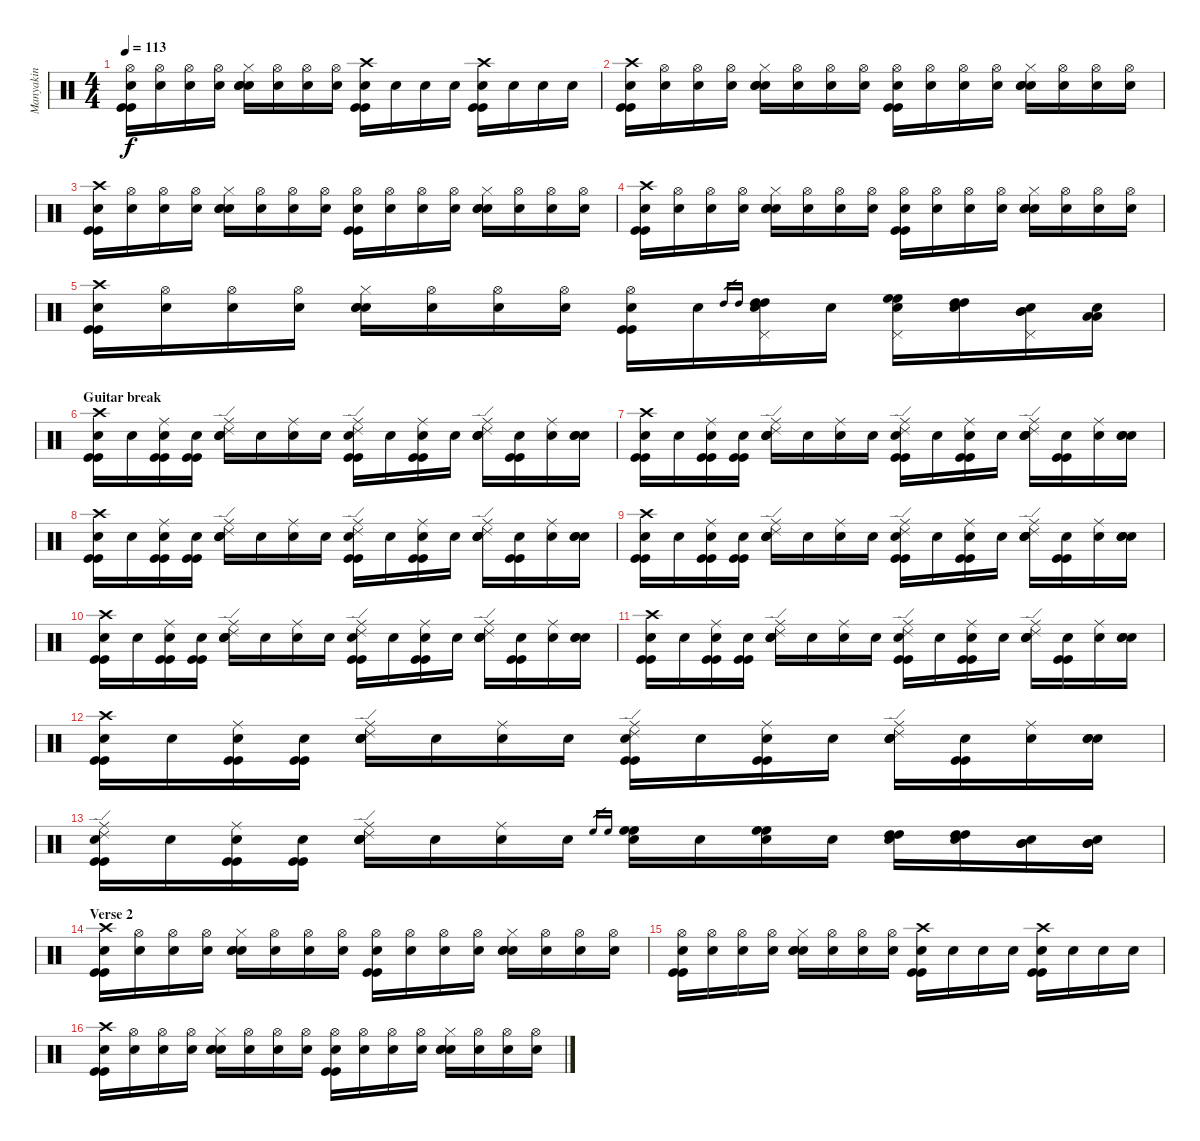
\track ("Manyakin" "Manyakin") {instrument percussion}
\staff {score}
\articulation defaults
\ts (4 4)
\tempo 113
\clef neutral
\ks c
("Hi-Hat (open)" "Kick (hit)" "Kick (hit)" "Snare (hit)"{x}).16{dy f} ("Hi-Hat (open)" "Snare (hit)"{x}).16 ("Hi-Hat (open)" "Snare (hit)"{x}).16 ("Hi-Hat (open)" "Snare (hit)"{x}).16 ("Hi-Hat (closed)" "Electric Snare (hit)" "Electric Snare (hit)" "Snare (hit)"{x}).16 ("Hi-Hat (open)" "Snare (hit)"{x}).16 ("Hi-Hat (open)" "Snare (hit)"{x}).16 ("Hi-Hat (open)" "Snare (hit)"{x}).16 ("Crash high (hit)" "Kick (hit)" "Kick (hit)" "Snare (hit)"{x}).16 "Snare (hit)"{x}.16 "Snare (hit)"{x}.16 "Snare (hit)"{x}.16 ("Crash high (hit)" "Kick (hit)" "Kick (hit)" "Snare (hit)"{x}).16 "Snare (hit)"{x}.16 "Snare (hit)"{x}.16 "Snare (hit)"{x}.16 |
("Crash high (hit)" "Kick (hit)" "Kick (hit)" "Snare (hit)"{x}).16 ("Hi-Hat (open)" "Snare (hit)"{x}).16 ("Hi-Hat (open)" "Snare (hit)"{x}).16 ("Hi-Hat (open)" "Snare (hit)"{x}).16 ("Hi-Hat (closed)" "Electric Snare (hit)" "Electric Snare (hit)" "Snare (hit)"{x}).16 ("Hi-Hat (open)" "Snare (hit)"{x}).16 ("Hi-Hat (open)" "Snare (hit)"{x}).16 ("Hi-Hat (open)" "Snare (hit)"{x}).16 ("Hi-Hat (open)" "Kick (hit)" "Kick (hit)" "Snare (hit)"{x}).16 ("Hi-Hat (open)" "Snare (hit)"{x}).16 ("Hi-Hat (open)" "Snare (hit)"{x}).16 ("Hi-Hat (open)" "Snare (hit)"{x}).16 ("Hi-Hat (closed)" "Electric Snare (hit)" "Electric Snare (hit)" "Snare (hit)"{x}).16 ("Hi-Hat (open)" "Snare (hit)"{x}).16 ("Hi-Hat (open)" "Snare (hit)"{x}).16 ("Hi-Hat (open)" "Snare (hit)"{x}).16 |
("Crash high (hit)" "Kick (hit)" "Kick (hit)" "Snare (hit)"{x}).16 ("Hi-Hat (open)" "Snare (hit)"{x}).16 ("Hi-Hat (open)" "Snare (hit)"{x}).16 ("Hi-Hat (open)" "Snare (hit)"{x}).16 ("Hi-Hat (closed)" "Electric Snare (hit)" "Electric Snare (hit)" "Snare (hit)"{x}).16 ("Hi-Hat (open)" "Snare (hit)"{x}).16 ("Hi-Hat (open)" "Snare (hit)"{x}).16 ("Hi-Hat (open)" "Snare (hit)"{x}).16 ("Hi-Hat (open)" "Kick (hit)" "Kick (hit)" "Snare (hit)"{x}).16 ("Hi-Hat (open)" "Snare (hit)"{x}).16 ("Hi-Hat (open)" "Snare (hit)"{x}).16 ("Hi-Hat (open)" "Snare (hit)"{x}).16 ("Hi-Hat (closed)" "Electric Snare (hit)" "Electric Snare (hit)" "Snare (hit)"{x}).16 ("Hi-Hat (open)" "Snare (hit)"{x}).16 ("Hi-Hat (open)" "Snare (hit)"{x}).16 ("Hi-Hat (open)" "Snare (hit)"{x}).16 |
("Crash high (hit)" "Kick (hit)" "Kick (hit)" "Snare (hit)"{x}).16 ("Hi-Hat (open)" "Snare (hit)"{x}).16 ("Hi-Hat (open)" "Snare (hit)"{x}).16 ("Hi-Hat (open)" "Snare (hit)"{x}).16 ("Hi-Hat (closed)" "Electric Snare (hit)" "Electric Snare (hit)" "Snare (hit)"{x}).16 ("Hi-Hat (open)" "Snare (hit)"{x}).16 ("Hi-Hat (open)" "Snare (hit)"{x}).16 ("Hi-Hat (open)" "Snare (hit)"{x}).16 ("Hi-Hat (open)" "Kick (hit)" "Kick (hit)" "Snare (hit)"{x}).16 ("Hi-Hat (open)" "Snare (hit)"{x}).16 ("Hi-Hat (open)" "Snare (hit)"{x}).16 ("Hi-Hat (open)" "Snare (hit)"{x}).16 ("Hi-Hat (closed)" "Electric Snare (hit)" "Electric Snare (hit)" "Snare (hit)"{x}).16 ("Hi-Hat (open)" "Snare (hit)"{x}).16 ("Hi-Hat (open)" "Snare (hit)"{x}).16 ("Hi-Hat (open)" "Snare (hit)"{x}).16 |
("Crash high (hit)" "Kick (hit)" "Kick (hit)" "Snare (hit)"{x}).16 ("Hi-Hat (open)" "Snare (hit)"{x}).16 ("Hi-Hat (open)" "Snare (hit)"{x}).16 ("Hi-Hat (open)" "Snare (hit)"{x}).16 ("Hi-Hat (closed)" "Electric Snare (hit)" "Electric Snare (hit)" "Snare (hit)"{x}).16 ("Hi-Hat (open)" "Snare (hit)"{x}).16 ("Hi-Hat (open)" "Snare (hit)"{x}).16 ("Hi-Hat (open)" "Snare (hit)"{x}).16 ("Hi-Hat (open)" "Kick (hit)" "Kick (hit)" "Snare (hit)"{x}).16 "Snare (hit)"{x}.16 "High Tom (hit)".16{gr} "High Tom (hit)".16{gr} ("Pedal Hi-Hat (hit)" "High Tom (hit)" "High Tom (hit)" "Snare (hit)"{x}).16 "Snare (hit)"{x}.16 ("Pedal Hi-Hat (hit)" "High Floor Tom (hit)" "High Floor Tom (hit)" "Snare (hit)"{x}).16 ("High Tom (hit)" "High Tom (hit)" "Snare (hit)"{x}).16 ("Pedal Hi-Hat (hit)" "Mid Tom (hit)" "Mid Tom (hit)" "Snare (hit)"{x}).16 ("Low Tom (hit)" "Low Tom (hit)" "Snare (hit)"{x}).16 |
\section ("" "Guitar break")
("Crash high (hit)" "Kick (hit)" "Kick (hit)" "Snare (hit)"{x}).16 "Snare (hit)"{x}.16 ("Ride (middle)" "Kick (hit)" "Kick (hit)" "Snare (hit)"{x}).16 ("Kick (hit)" "Kick (hit)" "Snare (hit)"{x}).16 ("Ride (middle)" "Ride (edge) 2" "Electric Snare (hit)" "Electric Snare (hit)" "Snare (hit)"{x}).16 "Snare (hit)"{x}.16 ("Ride (middle)" "Snare (hit)"{x}).16 "Snare (hit)"{x}.16 ("Ride (middle)" "Ride (edge) 2" "Kick (hit)" "Kick (hit)" "Snare (hit)"{x}).16 "Snare (hit)"{x}.16 ("Ride (middle)" "Kick (hit)" "Kick (hit)" "Snare (hit)"{x}).16 "Snare (hit)"{x}.16 ("Ride (middle)" "Ride (edge) 2" "Electric Snare (hit)" "Electric Snare (hit)" "Snare (hit)"{x}).16 ("Kick (hit)" "Kick (hit)" "Snare (hit)"{x}).16 ("Ride (middle)" "Snare (hit)"{x}).16 ("Electric Snare (hit)" "Electric Snare (hit)" "Snare (hit)"{x}).16 |
("Crash high (hit)" "Kick (hit)" "Kick (hit)" "Snare (hit)"{x}).16 "Snare (hit)"{x}.16 ("Ride (middle)" "Kick (hit)" "Kick (hit)" "Snare (hit)"{x}).16 ("Kick (hit)" "Kick (hit)" "Snare (hit)"{x}).16 ("Ride (middle)" "Ride (edge) 2" "Electric Snare (hit)" "Electric Snare (hit)" "Snare (hit)"{x}).16 "Snare (hit)"{x}.16 ("Ride (middle)" "Snare (hit)"{x}).16 "Snare (hit)"{x}.16 ("Ride (middle)" "Ride (edge) 2" "Kick (hit)" "Kick (hit)" "Snare (hit)"{x}).16 "Snare (hit)"{x}.16 ("Ride (middle)" "Kick (hit)" "Kick (hit)" "Snare (hit)"{x}).16 "Snare (hit)"{x}.16 ("Ride (middle)" "Ride (edge) 2" "Electric Snare (hit)" "Electric Snare (hit)" "Snare (hit)"{x}).16 ("Kick (hit)" "Kick (hit)" "Snare (hit)"{x}).16 ("Ride (middle)" "Snare (hit)"{x}).16 ("Electric Snare (hit)" "Electric Snare (hit)" "Snare (hit)"{x}).16 |
("Crash high (hit)" "Kick (hit)" "Kick (hit)" "Snare (hit)"{x}).16 "Snare (hit)"{x}.16 ("Ride (middle)" "Kick (hit)" "Kick (hit)" "Snare (hit)"{x}).16 ("Kick (hit)" "Kick (hit)" "Snare (hit)"{x}).16 ("Ride (middle)" "Ride (edge) 2" "Electric Snare (hit)" "Electric Snare (hit)" "Snare (hit)"{x}).16 "Snare (hit)"{x}.16 ("Ride (middle)" "Snare (hit)"{x}).16 "Snare (hit)"{x}.16 ("Ride (middle)" "Ride (edge) 2" "Kick (hit)" "Kick (hit)" "Snare (hit)"{x}).16 "Snare (hit)"{x}.16 ("Ride (middle)" "Kick (hit)" "Kick (hit)" "Snare (hit)"{x}).16 "Snare (hit)"{x}.16 ("Ride (middle)" "Ride (edge) 2" "Electric Snare (hit)" "Electric Snare (hit)" "Snare (hit)"{x}).16 ("Kick (hit)" "Kick (hit)" "Snare (hit)"{x}).16 ("Ride (middle)" "Snare (hit)"{x}).16 ("Electric Snare (hit)" "Electric Snare (hit)" "Snare (hit)"{x}).16 |
("Crash high (hit)" "Kick (hit)" "Kick (hit)" "Snare (hit)"{x}).16 "Snare (hit)"{x}.16 ("Ride (middle)" "Kick (hit)" "Kick (hit)" "Snare (hit)"{x}).16 ("Kick (hit)" "Kick (hit)" "Snare (hit)"{x}).16 ("Ride (middle)" "Ride (edge) 2" "Electric Snare (hit)" "Electric Snare (hit)" "Snare (hit)"{x}).16 "Snare (hit)"{x}.16 ("Ride (middle)" "Snare (hit)"{x}).16 "Snare (hit)"{x}.16 ("Ride (middle)" "Ride (edge) 2" "Kick (hit)" "Kick (hit)" "Snare (hit)"{x}).16 "Snare (hit)"{x}.16 ("Ride (middle)" "Kick (hit)" "Kick (hit)" "Snare (hit)"{x}).16 "Snare (hit)"{x}.16 ("Ride (middle)" "Ride (edge) 2" "Electric Snare (hit)" "Electric Snare (hit)" "Snare (hit)"{x}).16 ("Kick (hit)" "Kick (hit)" "Snare (hit)"{x}).16 ("Ride (middle)" "Snare (hit)"{x}).16 ("Electric Snare (hit)" "Electric Snare (hit)" "Snare (hit)"{x}).16 |
("Crash high (hit)" "Kick (hit)" "Kick (hit)" "Snare (hit)"{x}).16 "Snare (hit)"{x}.16 ("Ride (middle)" "Kick (hit)" "Kick (hit)" "Snare (hit)"{x}).16 ("Kick (hit)" "Kick (hit)" "Snare (hit)"{x}).16 ("Ride (middle)" "Ride (edge) 2" "Electric Snare (hit)" "Electric Snare (hit)" "Snare (hit)"{x}).16 "Snare (hit)"{x}.16 ("Ride (middle)" "Snare (hit)"{x}).16 "Snare (hit)"{x}.16 ("Ride (middle)" "Ride (edge) 2" "Kick (hit)" "Kick (hit)" "Snare (hit)"{x}).16 "Snare (hit)"{x}.16 ("Ride (middle)" "Kick (hit)" "Kick (hit)" "Snare (hit)"{x}).16 "Snare (hit)"{x}.16 ("Ride (middle)" "Ride (edge) 2" "Electric Snare (hit)" "Electric Snare (hit)" "Snare (hit)"{x}).16 ("Kick (hit)" "Kick (hit)" "Snare (hit)"{x}).16 ("Ride (middle)" "Snare (hit)"{x}).16 ("Electric Snare (hit)" "Electric Snare (hit)" "Snare (hit)"{x}).16 |
("Crash high (hit)" "Kick (hit)" "Kick (hit)" "Snare (hit)"{x}).16 "Snare (hit)"{x}.16 ("Ride (middle)" "Kick (hit)" "Kick (hit)" "Snare (hit)"{x}).16 ("Kick (hit)" "Kick (hit)" "Snare (hit)"{x}).16 ("Ride (middle)" "Ride (edge) 2" "Electric Snare (hit)" "Electric Snare (hit)" "Snare (hit)"{x}).16 "Snare (hit)"{x}.16 ("Ride (middle)" "Snare (hit)"{x}).16 "Snare (hit)"{x}.16 ("Ride (middle)" "Ride (edge) 2" "Kick (hit)" "Kick (hit)" "Snare (hit)"{x}).16 "Snare (hit)"{x}.16 ("Ride (middle)" "Kick (hit)" "Kick (hit)" "Snare (hit)"{x}).16 "Snare (hit)"{x}.16 ("Ride (middle)" "Ride (edge) 2" "Electric Snare (hit)" "Electric Snare (hit)" "Snare (hit)"{x}).16 ("Kick (hit)" "Kick (hit)" "Snare (hit)"{x}).16 ("Ride (middle)" "Snare (hit)"{x}).16 ("Electric Snare (hit)" "Electric Snare (hit)" "Snare (hit)"{x}).16 |
("Crash high (hit)" "Kick (hit)" "Kick (hit)" "Snare (hit)"{x}).16 "Snare (hit)"{x}.16 ("Ride (middle)" "Kick (hit)" "Kick (hit)" "Snare (hit)"{x}).16 ("Kick (hit)" "Kick (hit)" "Snare (hit)"{x}).16 ("Ride (middle)" "Ride (edge) 2" "Electric Snare (hit)" "Electric Snare (hit)" "Snare (hit)"{x}).16 "Snare (hit)"{x}.16 ("Ride (middle)" "Snare (hit)"{x}).16 "Snare (hit)"{x}.16 ("Ride (middle)" "Ride (edge) 2" "Kick (hit)" "Kick (hit)" "Snare (hit)"{x}).16 "Snare (hit)"{x}.16 ("Ride (middle)" "Kick (hit)" "Kick (hit)" "Snare (hit)"{x}).16 "Snare (hit)"{x}.16 ("Ride (middle)" "Ride (edge) 2" "Electric Snare (hit)" "Electric Snare (hit)" "Snare (hit)"{x}).16 ("Kick (hit)" "Kick (hit)" "Snare (hit)"{x}).16 ("Ride (middle)" "Snare (hit)"{x}).16 ("Electric Snare (hit)" "Electric Snare (hit)" "Snare (hit)"{x}).16 |
("Ride (middle)" "Ride (edge) 2" "Kick (hit)" "Kick (hit)" "Snare (hit)"{x}).16 "Snare (hit)"{x}.16 ("Ride (middle)" "Kick (hit)" "Kick (hit)" "Snare (hit)"{x}).16 ("Kick (hit)" "Kick (hit)" "Snare (hit)"{x}).16 ("Ride (middle)" "Ride (edge) 2" "Electric Snare (hit)" "Electric Snare (hit)" "Snare (hit)"{x}).16 "Snare (hit)"{x}.16 ("Ride (middle)" "Snare (hit)"{x}).16 "Snare (hit)"{x}.16 "High Floor Tom (hit)".16{gr} "High Floor Tom (hit)".16{gr} ("High Floor Tom (hit)" "High Floor Tom (hit)" "Snare (hit)"{x}).16 "Snare (hit)"{x}.16 ("High Floor Tom (hit)" "High Floor Tom (hit)" "Snare (hit)"{x}).16 "Snare (hit)"{x}.16 ("High Tom (hit)" "High Tom (hit)" "Snare (hit)"{x}).16 ("High Tom (hit)" "High Tom (hit)" "Snare (hit)"{x}).16 ("Mid Tom (hit)" "Mid Tom (hit)" "Snare (hit)"{x}).16 ("Mid Tom (hit)" "Mid Tom (hit)" "Snare (hit)"{x}).16 |
\section ("" "Verse 2")
("Crash high (hit)" "Kick (hit)" "Kick (hit)" "Snare (hit)"{x}).16 ("Hi-Hat (open)" "Snare (hit)"{x}).16 ("Hi-Hat (open)" "Snare (hit)"{x}).16 ("Hi-Hat (open)" "Snare (hit)"{x}).16 ("Hi-Hat (closed)" "Electric Snare (hit)" "Electric Snare (hit)" "Snare (hit)"{x}).16 ("Hi-Hat (open)" "Snare (hit)"{x}).16 ("Hi-Hat (open)" "Snare (hit)"{x}).16 ("Hi-Hat (open)" "Snare (hit)"{x}).16 ("Hi-Hat (open)" "Kick (hit)" "Kick (hit)" "Snare (hit)"{x}).16 ("Hi-Hat (open)" "Snare (hit)"{x}).16 ("Hi-Hat (open)" "Snare (hit)"{x}).16 ("Hi-Hat (open)" "Snare (hit)"{x}).16 ("Hi-Hat (closed)" "Electric Snare (hit)" "Electric Snare (hit)" "Snare (hit)"{x}).16 ("Hi-Hat (open)" "Snare (hit)"{x}).16 ("Hi-Hat (open)" "Snare (hit)"{x}).16 ("Hi-Hat (open)" "Snare (hit)"{x}).16 |
("Hi-Hat (open)" "Kick (hit)" "Kick (hit)" "Snare (hit)"{x}).16 ("Hi-Hat (open)" "Snare (hit)"{x}).16 ("Hi-Hat (open)" "Snare (hit)"{x}).16 ("Hi-Hat (open)" "Snare (hit)"{x}).16 ("Hi-Hat (closed)" "Electric Snare (hit)" "Electric Snare (hit)" "Snare (hit)"{x}).16 ("Hi-Hat (open)" "Snare (hit)"{x}).16 ("Hi-Hat (open)" "Snare (hit)"{x}).16 ("Hi-Hat (open)" "Snare (hit)"{x}).16 ("Crash high (hit)" "Kick (hit)" "Kick (hit)" "Snare (hit)"{x}).16 "Snare (hit)"{x}.16 "Snare (hit)"{x}.16 "Snare (hit)"{x}.16 ("Crash high (hit)" "Kick (hit)" "Kick (hit)" "Snare (hit)"{x}).16 "Snare (hit)"{x}.16 "Snare (hit)"{x}.16 "Snare (hit)"{x}.16 |
("Crash high (hit)" "Kick (hit)" "Kick (hit)" "Snare (hit)"{x}).16 ("Hi-Hat (open)" "Snare (hit)"{x}).16 ("Hi-Hat (open)" "Snare (hit)"{x}).16 ("Hi-Hat (open)" "Snare (hit)"{x}).16 ("Hi-Hat (closed)" "Electric Snare (hit)" "Electric Snare (hit)" "Snare (hit)"{x}).16 ("Hi-Hat (open)" "Snare (hit)"{x}).16 ("Hi-Hat (open)" "Snare (hit)"{x}).16 ("Hi-Hat (open)" "Snare (hit)"{x}).16 ("Hi-Hat (open)" "Kick (hit)" "Kick (hit)" "Snare (hit)"{x}).16 ("Hi-Hat (open)" "Snare (hit)"{x}).16 ("Hi-Hat (open)" "Snare (hit)"{x}).16 ("Hi-Hat (open)" "Snare (hit)"{x}).16 ("Hi-Hat (closed)" "Electric Snare (hit)" "Electric Snare (hit)" "Snare (hit)"{x}).16 ("Hi-Hat (open)" "Snare (hit)"{x}).16 ("Hi-Hat (open)" "Snare (hit)"{x}).16 ("Hi-Hat (open)" "Snare (hit)"{x}).16
